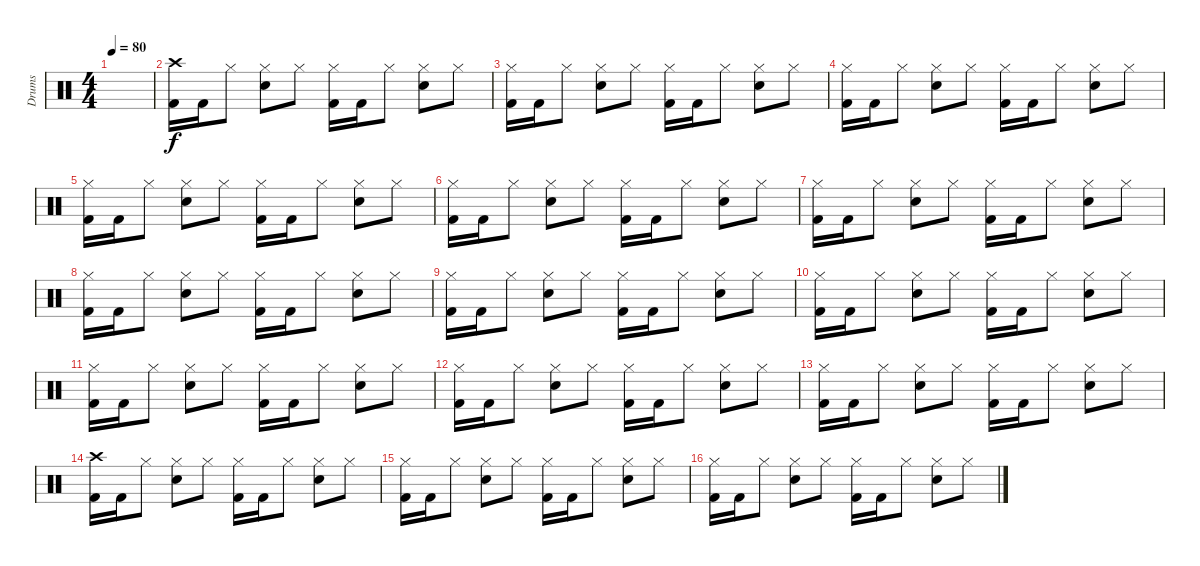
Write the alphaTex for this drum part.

\track ("Drums         " "Drums     ") {instrument percussion}
\staff {score}
\articulation defaults
\ts (4 4)
\tempo 80
\clef neutral
\ks c
|
("Kick (hit) 2" "Crash high (hit)").16 "Kick (hit) 2".16 "Hi-Hat (closed)".8 ("Snare (hit) 2" "Hi-Hat (closed)").8 "Hi-Hat (closed)".8 ("Kick (hit) 2" "Hi-Hat (closed)").16 "Kick (hit) 2".16 "Hi-Hat (closed)".8 ("Snare (hit) 2" "Hi-Hat (closed)").8 "Hi-Hat (closed)".8 |
("Kick (hit) 2" "Hi-Hat (closed)").16 "Kick (hit) 2".16 "Hi-Hat (closed)".8 ("Snare (hit) 2" "Hi-Hat (closed)").8 "Hi-Hat (closed)".8 ("Kick (hit) 2" "Hi-Hat (closed)").16 "Kick (hit) 2".16 "Hi-Hat (closed)".8 ("Snare (hit) 2" "Hi-Hat (closed)").8 "Hi-Hat (closed)".8 |
("Kick (hit) 2" "Hi-Hat (closed)").16 "Kick (hit) 2".16 "Hi-Hat (closed)".8 ("Snare (hit) 2" "Hi-Hat (closed)").8 "Hi-Hat (closed)".8 ("Kick (hit) 2" "Hi-Hat (closed)").16 "Kick (hit) 2".16 "Hi-Hat (closed)".8 ("Snare (hit) 2" "Hi-Hat (closed)").8 "Hi-Hat (closed)".8 |
("Kick (hit) 2" "Hi-Hat (closed)").16 "Kick (hit) 2".16 "Hi-Hat (closed)".8 ("Snare (hit) 2" "Hi-Hat (closed)").8 "Hi-Hat (closed)".8 ("Kick (hit) 2" "Hi-Hat (closed)").16 "Kick (hit) 2".16 "Hi-Hat (closed)".8 ("Snare (hit) 2" "Hi-Hat (closed)").8 "Hi-Hat (closed)".8 |
("Kick (hit) 2" "Hi-Hat (closed)").16 "Kick (hit) 2".16 "Hi-Hat (closed)".8 ("Snare (hit) 2" "Hi-Hat (closed)").8 "Hi-Hat (closed)".8 ("Kick (hit) 2" "Hi-Hat (closed)").16 "Kick (hit) 2".16 "Hi-Hat (closed)".8 ("Snare (hit) 2" "Hi-Hat (closed)").8 "Hi-Hat (closed)".8 |
("Kick (hit) 2" "Hi-Hat (closed)").16 "Kick (hit) 2".16 "Hi-Hat (closed)".8 ("Snare (hit) 2" "Hi-Hat (closed)").8 "Hi-Hat (closed)".8 ("Kick (hit) 2" "Hi-Hat (closed)").16 "Kick (hit) 2".16 "Hi-Hat (closed)".8 ("Snare (hit) 2" "Hi-Hat (closed)").8 "Hi-Hat (closed)".8 |
("Kick (hit) 2" "Hi-Hat (closed)").16 "Kick (hit) 2".16 "Hi-Hat (closed)".8 ("Snare (hit) 2" "Hi-Hat (closed)").8 "Hi-Hat (closed)".8 ("Kick (hit) 2" "Hi-Hat (closed)").16 "Kick (hit) 2".16 "Hi-Hat (closed)".8 ("Snare (hit) 2" "Hi-Hat (closed)").8 "Hi-Hat (closed)".8 |
("Kick (hit) 2" "Hi-Hat (closed)").16 "Kick (hit) 2".16 "Hi-Hat (closed)".8 ("Snare (hit) 2" "Hi-Hat (closed)").8 "Hi-Hat (closed)".8 ("Kick (hit) 2" "Hi-Hat (closed)").16 "Kick (hit) 2".16 "Hi-Hat (closed)".8 ("Snare (hit) 2" "Hi-Hat (closed)").8 "Hi-Hat (closed)".8 |
("Kick (hit) 2" "Hi-Hat (closed)").16 "Kick (hit) 2".16 "Hi-Hat (closed)".8 ("Snare (hit) 2" "Hi-Hat (closed)").8 "Hi-Hat (closed)".8 ("Kick (hit) 2" "Hi-Hat (closed)").16 "Kick (hit) 2".16 "Hi-Hat (closed)".8 ("Snare (hit) 2" "Hi-Hat (closed)").8 "Hi-Hat (closed)".8 |
("Kick (hit) 2" "Hi-Hat (closed)").16 "Kick (hit) 2".16 "Hi-Hat (closed)".8 ("Snare (hit) 2" "Hi-Hat (closed)").8 "Hi-Hat (closed)".8 ("Kick (hit) 2" "Hi-Hat (closed)").16 "Kick (hit) 2".16 "Hi-Hat (closed)".8 ("Snare (hit) 2" "Hi-Hat (closed)").8 "Hi-Hat (closed)".8 |
("Kick (hit) 2" "Hi-Hat (closed)").16 "Kick (hit) 2".16 "Hi-Hat (closed)".8 ("Snare (hit) 2" "Hi-Hat (closed)").8 "Hi-Hat (closed)".8 ("Kick (hit) 2" "Hi-Hat (closed)").16 "Kick (hit) 2".16 "Hi-Hat (closed)".8 ("Snare (hit) 2" "Hi-Hat (closed)").8 "Hi-Hat (closed)".8 |
("Kick (hit) 2" "Hi-Hat (closed)").16 "Kick (hit) 2".16 "Hi-Hat (closed)".8 ("Snare (hit) 2" "Hi-Hat (closed)").8 "Hi-Hat (closed)".8 ("Kick (hit) 2" "Hi-Hat (closed)").16 "Kick (hit) 2".16 "Hi-Hat (closed)".8 ("Snare (hit) 2" "Hi-Hat (closed)").8 "Hi-Hat (closed)".8 |
("Kick (hit) 2" "Crash high (hit)").16 "Kick (hit) 2".16 "Hi-Hat (closed)".8 ("Snare (hit) 2" "Hi-Hat (closed)").8 "Hi-Hat (closed)".8 ("Kick (hit) 2" "Hi-Hat (closed)").16 "Kick (hit) 2".16 "Hi-Hat (closed)".8 ("Snare (hit) 2" "Hi-Hat (closed)").8 "Hi-Hat (closed)".8 |
("Kick (hit) 2" "Hi-Hat (closed)").16 "Kick (hit) 2".16 "Hi-Hat (closed)".8 ("Snare (hit) 2" "Hi-Hat (closed)").8 "Hi-Hat (closed)".8 ("Kick (hit) 2" "Hi-Hat (closed)").16 "Kick (hit) 2".16 "Hi-Hat (closed)".8 ("Snare (hit) 2" "Hi-Hat (closed)").8 "Hi-Hat (closed)".8 |
("Kick (hit) 2" "Hi-Hat (closed)").16 "Kick (hit) 2".16 "Hi-Hat (closed)".8 ("Snare (hit) 2" "Hi-Hat (closed)").8 "Hi-Hat (closed)".8 ("Kick (hit) 2" "Hi-Hat (closed)").16 "Kick (hit) 2".16 "Hi-Hat (closed)".8 ("Snare (hit) 2" "Hi-Hat (closed)").8 "Hi-Hat (closed)".8
